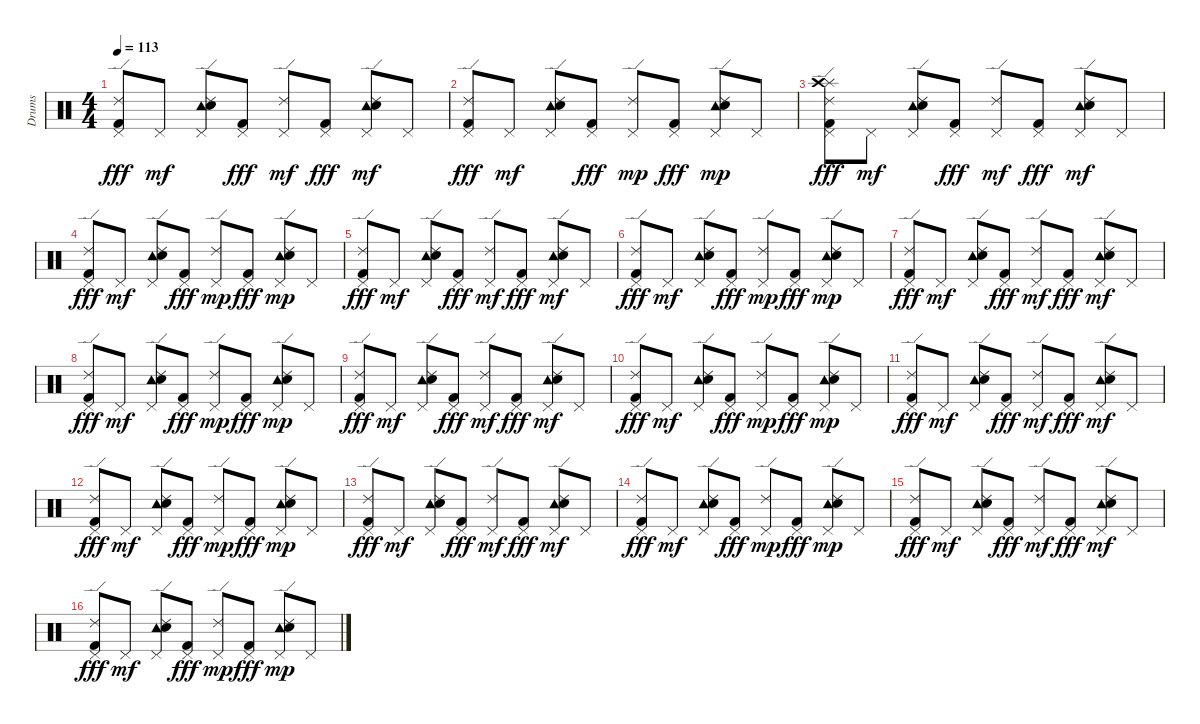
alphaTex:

\track ("Drums" "Drums") {instrument percussion}
\staff {score}
\articulation defaults
\ts (4 4)
\tempo 113
\clef neutral
\ks c
("Ride (edge) 2" "Pedal Hi-Hat (hit)" "Kick (hit) 2").8{dy fff} "Pedal Hi-Hat (hit)".8{dy mf} ("Ride (edge) 2" "Tambourine (hit)" "Pedal Hi-Hat (hit)" "Electric Snare (hit)").8 ("Pedal Hi-Hat (hit)" "Kick (hit) 2").8{dy fff} ("Ride (edge) 2" "Pedal Hi-Hat (hit)").8{dy mf} ("Pedal Hi-Hat (hit)" "Kick (hit) 2").8{dy fff} ("Ride (edge) 2" "Tambourine (hit)" "Pedal Hi-Hat (hit)" "Electric Snare (hit)").8{dy mf} "Pedal Hi-Hat (hit)".8 |
("Ride (edge) 2" "Pedal Hi-Hat (hit)" "Kick (hit) 2").8{dy fff} "Pedal Hi-Hat (hit)".8{dy mf} ("Ride (edge) 2" "Tambourine (hit)" "Pedal Hi-Hat (hit)" "Electric Snare (hit)").8 ("Pedal Hi-Hat (hit)" "Kick (hit) 2").8{dy fff} ("Ride (edge) 2" "Pedal Hi-Hat (hit)").8{dy mp} ("Pedal Hi-Hat (hit)" "Kick (hit) 2").8{dy fff} ("Ride (edge) 2" "Tambourine (hit)" "Pedal Hi-Hat (hit)" "Electric Snare (hit)").8{dy mp} "Pedal Hi-Hat (hit)".8 |
("Splash (hit)" "Crash high (hit)" "Ride (edge) 2" "Pedal Hi-Hat (hit)" "Kick (hit) 2").8{dy fff} "Pedal Hi-Hat (hit)".8{dy mf} ("Ride (edge) 2" "Tambourine (hit)" "Pedal Hi-Hat (hit)" "Electric Snare (hit)").8 ("Pedal Hi-Hat (hit)" "Kick (hit) 2").8{dy fff} ("Ride (edge) 2" "Pedal Hi-Hat (hit)").8{dy mf} ("Pedal Hi-Hat (hit)" "Kick (hit) 2").8{dy fff} ("Ride (edge) 2" "Tambourine (hit)" "Pedal Hi-Hat (hit)" "Electric Snare (hit)").8{dy mf} "Pedal Hi-Hat (hit)".8 |
("Ride (edge) 2" "Pedal Hi-Hat (hit)" "Kick (hit) 2").8{dy fff} "Pedal Hi-Hat (hit)".8{dy mf} ("Ride (edge) 2" "Tambourine (hit)" "Pedal Hi-Hat (hit)" "Electric Snare (hit)").8 ("Pedal Hi-Hat (hit)" "Kick (hit) 2").8{dy fff} ("Ride (edge) 2" "Pedal Hi-Hat (hit)").8{dy mp} ("Pedal Hi-Hat (hit)" "Kick (hit) 2").8{dy fff} ("Ride (edge) 2" "Tambourine (hit)" "Pedal Hi-Hat (hit)" "Electric Snare (hit)").8{dy mp} "Pedal Hi-Hat (hit)".8 |
("Ride (edge) 2" "Pedal Hi-Hat (hit)" "Kick (hit) 2").8{dy fff} "Pedal Hi-Hat (hit)".8{dy mf} ("Ride (edge) 2" "Tambourine (hit)" "Pedal Hi-Hat (hit)" "Electric Snare (hit)").8 ("Pedal Hi-Hat (hit)" "Kick (hit) 2").8{dy fff} ("Ride (edge) 2" "Pedal Hi-Hat (hit)").8{dy mf} ("Pedal Hi-Hat (hit)" "Kick (hit) 2").8{dy fff} ("Ride (edge) 2" "Tambourine (hit)" "Pedal Hi-Hat (hit)" "Electric Snare (hit)").8{dy mf} "Pedal Hi-Hat (hit)".8 |
("Ride (edge) 2" "Pedal Hi-Hat (hit)" "Kick (hit) 2").8{dy fff} "Pedal Hi-Hat (hit)".8{dy mf} ("Ride (edge) 2" "Tambourine (hit)" "Pedal Hi-Hat (hit)" "Electric Snare (hit)").8 ("Pedal Hi-Hat (hit)" "Kick (hit) 2").8{dy fff} ("Ride (edge) 2" "Pedal Hi-Hat (hit)").8{dy mp} ("Pedal Hi-Hat (hit)" "Kick (hit) 2").8{dy fff} ("Ride (edge) 2" "Tambourine (hit)" "Pedal Hi-Hat (hit)" "Electric Snare (hit)").8{dy mp} "Pedal Hi-Hat (hit)".8 |
("Ride (edge) 2" "Pedal Hi-Hat (hit)" "Kick (hit) 2").8{dy fff} "Pedal Hi-Hat (hit)".8{dy mf} ("Ride (edge) 2" "Tambourine (hit)" "Pedal Hi-Hat (hit)" "Electric Snare (hit)").8 ("Pedal Hi-Hat (hit)" "Kick (hit) 2").8{dy fff} ("Ride (edge) 2" "Pedal Hi-Hat (hit)").8{dy mf} ("Pedal Hi-Hat (hit)" "Kick (hit) 2").8{dy fff} ("Ride (edge) 2" "Tambourine (hit)" "Pedal Hi-Hat (hit)" "Electric Snare (hit)").8{dy mf} "Pedal Hi-Hat (hit)".8 |
("Ride (edge) 2" "Pedal Hi-Hat (hit)" "Kick (hit) 2").8{dy fff} "Pedal Hi-Hat (hit)".8{dy mf} ("Ride (edge) 2" "Tambourine (hit)" "Pedal Hi-Hat (hit)" "Electric Snare (hit)").8 ("Pedal Hi-Hat (hit)" "Kick (hit) 2").8{dy fff} ("Ride (edge) 2" "Pedal Hi-Hat (hit)").8{dy mp} ("Pedal Hi-Hat (hit)" "Kick (hit) 2").8{dy fff} ("Ride (edge) 2" "Tambourine (hit)" "Pedal Hi-Hat (hit)" "Electric Snare (hit)").8{dy mp} "Pedal Hi-Hat (hit)".8 |
("Ride (edge) 2" "Pedal Hi-Hat (hit)" "Kick (hit) 2").8{dy fff} "Pedal Hi-Hat (hit)".8{dy mf} ("Ride (edge) 2" "Tambourine (hit)" "Pedal Hi-Hat (hit)" "Electric Snare (hit)").8 ("Pedal Hi-Hat (hit)" "Kick (hit) 2").8{dy fff} ("Ride (edge) 2" "Pedal Hi-Hat (hit)").8{dy mf} ("Pedal Hi-Hat (hit)" "Kick (hit) 2").8{dy fff} ("Ride (edge) 2" "Tambourine (hit)" "Pedal Hi-Hat (hit)" "Electric Snare (hit)").8{dy mf} "Pedal Hi-Hat (hit)".8 |
("Ride (edge) 2" "Pedal Hi-Hat (hit)" "Kick (hit) 2").8{dy fff} "Pedal Hi-Hat (hit)".8{dy mf} ("Ride (edge) 2" "Tambourine (hit)" "Pedal Hi-Hat (hit)" "Electric Snare (hit)").8 ("Pedal Hi-Hat (hit)" "Kick (hit) 2").8{dy fff} ("Ride (edge) 2" "Pedal Hi-Hat (hit)").8{dy mp} ("Pedal Hi-Hat (hit)" "Kick (hit) 2").8{dy fff} ("Ride (edge) 2" "Tambourine (hit)" "Pedal Hi-Hat (hit)" "Electric Snare (hit)").8{dy mp} "Pedal Hi-Hat (hit)".8 |
("Ride (edge) 2" "Pedal Hi-Hat (hit)" "Kick (hit) 2").8{dy fff} "Pedal Hi-Hat (hit)".8{dy mf} ("Ride (edge) 2" "Tambourine (hit)" "Pedal Hi-Hat (hit)" "Electric Snare (hit)").8 ("Pedal Hi-Hat (hit)" "Kick (hit) 2").8{dy fff} ("Ride (edge) 2" "Pedal Hi-Hat (hit)").8{dy mf} ("Pedal Hi-Hat (hit)" "Kick (hit) 2").8{dy fff} ("Ride (edge) 2" "Tambourine (hit)" "Pedal Hi-Hat (hit)" "Electric Snare (hit)").8{dy mf} "Pedal Hi-Hat (hit)".8 |
("Ride (edge) 2" "Pedal Hi-Hat (hit)" "Kick (hit) 2").8{dy fff} "Pedal Hi-Hat (hit)".8{dy mf} ("Ride (edge) 2" "Tambourine (hit)" "Pedal Hi-Hat (hit)" "Electric Snare (hit)").8 ("Pedal Hi-Hat (hit)" "Kick (hit) 2").8{dy fff} ("Ride (edge) 2" "Pedal Hi-Hat (hit)").8{dy mp} ("Pedal Hi-Hat (hit)" "Kick (hit) 2").8{dy fff} ("Ride (edge) 2" "Tambourine (hit)" "Pedal Hi-Hat (hit)" "Electric Snare (hit)").8{dy mp} "Pedal Hi-Hat (hit)".8 |
("Ride (edge) 2" "Pedal Hi-Hat (hit)" "Kick (hit) 2").8{dy fff} "Pedal Hi-Hat (hit)".8{dy mf} ("Ride (edge) 2" "Tambourine (hit)" "Pedal Hi-Hat (hit)" "Electric Snare (hit)").8 ("Pedal Hi-Hat (hit)" "Kick (hit) 2").8{dy fff} ("Ride (edge) 2" "Pedal Hi-Hat (hit)").8{dy mf} ("Pedal Hi-Hat (hit)" "Kick (hit) 2").8{dy fff} ("Ride (edge) 2" "Tambourine (hit)" "Pedal Hi-Hat (hit)" "Electric Snare (hit)").8{dy mf} "Pedal Hi-Hat (hit)".8 |
("Ride (edge) 2" "Pedal Hi-Hat (hit)" "Kick (hit) 2").8{dy fff} "Pedal Hi-Hat (hit)".8{dy mf} ("Ride (edge) 2" "Tambourine (hit)" "Pedal Hi-Hat (hit)" "Electric Snare (hit)").8 ("Pedal Hi-Hat (hit)" "Kick (hit) 2").8{dy fff} ("Ride (edge) 2" "Pedal Hi-Hat (hit)").8{dy mp} ("Pedal Hi-Hat (hit)" "Kick (hit) 2").8{dy fff} ("Ride (edge) 2" "Tambourine (hit)" "Pedal Hi-Hat (hit)" "Electric Snare (hit)").8{dy mp} "Pedal Hi-Hat (hit)".8 |
("Ride (edge) 2" "Pedal Hi-Hat (hit)" "Kick (hit) 2").8{dy fff} "Pedal Hi-Hat (hit)".8{dy mf} ("Ride (edge) 2" "Tambourine (hit)" "Pedal Hi-Hat (hit)" "Electric Snare (hit)").8 ("Pedal Hi-Hat (hit)" "Kick (hit) 2").8{dy fff} ("Ride (edge) 2" "Pedal Hi-Hat (hit)").8{dy mf} ("Pedal Hi-Hat (hit)" "Kick (hit) 2").8{dy fff} ("Ride (edge) 2" "Tambourine (hit)" "Pedal Hi-Hat (hit)" "Electric Snare (hit)").8{dy mf} "Pedal Hi-Hat (hit)".8 |
("Ride (edge) 2" "Pedal Hi-Hat (hit)" "Kick (hit) 2").8{dy fff} "Pedal Hi-Hat (hit)".8{dy mf} ("Ride (edge) 2" "Tambourine (hit)" "Pedal Hi-Hat (hit)" "Electric Snare (hit)").8 ("Pedal Hi-Hat (hit)" "Kick (hit) 2").8{dy fff} ("Ride (edge) 2" "Pedal Hi-Hat (hit)").8{dy mp} ("Pedal Hi-Hat (hit)" "Kick (hit) 2").8{dy fff} ("Ride (edge) 2" "Tambourine (hit)" "Pedal Hi-Hat (hit)" "Electric Snare (hit)").8{dy mp} "Pedal Hi-Hat (hit)".8
